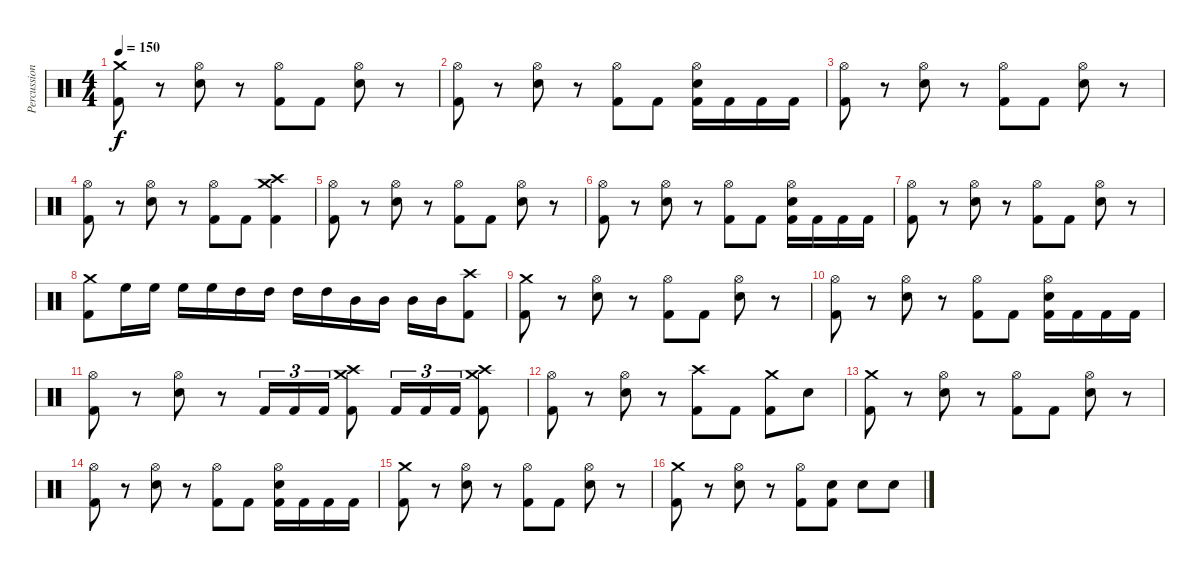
\track ("Percussion" "Percussion") {instrument percussion}
\staff {score}
\articulation defaults
\ts (4 4)
\tempo 150
\clef neutral
\ks c
("Kick (hit) 2" "Crash medium (hit)").8{dy f} r.8 ("Snare (hit) 2" "Hi-Hat (open)").8 r.8 ("Kick (hit) 2" "Hi-Hat (open)").8 "Kick (hit) 2".8 ("Snare (hit) 2" "Hi-Hat (open)").8 r.8 |
("Kick (hit) 2" "Hi-Hat (open)").8 r.8 ("Snare (hit) 2" "Hi-Hat (open)").8 r.8 ("Kick (hit) 2" "Hi-Hat (open)").8 "Kick (hit) 2".8 ("Kick (hit) 2" "Snare (hit) 2" "Hi-Hat (open)").16 "Kick (hit) 2".16 "Kick (hit) 2".16 "Kick (hit) 2".16 |
("Kick (hit) 2" "Hi-Hat (open)").8 r.8 ("Snare (hit) 2" "Hi-Hat (open)").8 r.8 ("Kick (hit) 2" "Hi-Hat (open)").8 "Kick (hit) 2".8 ("Snare (hit) 2" "Hi-Hat (open)").8 r.8 |
("Kick (hit) 2" "Hi-Hat (open)").8 r.8 ("Snare (hit) 2" "Hi-Hat (open)").8 r.8 ("Kick (hit) 2" "Hi-Hat (open)").8 "Kick (hit) 2".8 ("Kick (hit) 2" "Crash high (hit)" "Crash medium (hit)").4 |
("Kick (hit) 2" "Hi-Hat (open)").8 r.8 ("Snare (hit) 2" "Hi-Hat (open)").8 r.8 ("Kick (hit) 2" "Hi-Hat (open)").8 "Kick (hit) 2".8 ("Snare (hit) 2" "Hi-Hat (open)").8 r.8 |
("Kick (hit) 2" "Hi-Hat (open)").8 r.8 ("Snare (hit) 2" "Hi-Hat (open)").8 r.8 ("Kick (hit) 2" "Hi-Hat (open)").8 "Kick (hit) 2".8 ("Kick (hit) 2" "Snare (hit) 2" "Hi-Hat (open)").16 "Kick (hit) 2".16 "Kick (hit) 2".16 "Kick (hit) 2".16 |
("Kick (hit) 2" "Hi-Hat (open)").8 r.8 ("Snare (hit) 2" "Hi-Hat (open)").8 r.8 ("Kick (hit) 2" "Hi-Hat (open)").8 "Kick (hit) 2".8 ("Snare (hit) 2" "Hi-Hat (open)").8 r.8 |
("Kick (hit) 2" "Crash medium (hit)").8 "High Floor Tom (hit)".16 "High Floor Tom (hit)".16 "High Floor Tom (hit)".16 "High Floor Tom (hit)".16 "High Tom (hit)".16 "High Tom (hit)".16 "High Tom (hit)".16 "High Tom (hit)".16 "Mid Tom (hit)".16 "Mid Tom (hit)".16 "Mid Tom (hit)".16 "Mid Tom (hit)".16 ("Kick (hit) 2" "Crash high (hit)").8 |
("Kick (hit) 2" "Crash medium (hit)").8 r.8 ("Snare (hit) 2" "Hi-Hat (open)").8 r.8 ("Kick (hit) 2" "Hi-Hat (open)").8 "Kick (hit) 2".8 ("Snare (hit) 2" "Hi-Hat (open)").8 r.8 |
("Kick (hit) 2" "Hi-Hat (open)").8 r.8 ("Snare (hit) 2" "Hi-Hat (open)").8 r.8 ("Kick (hit) 2" "Hi-Hat (open)").8 "Kick (hit) 2".8 ("Kick (hit) 2" "Snare (hit) 2" "Hi-Hat (open)").16 "Kick (hit) 2".16 "Kick (hit) 2".16 "Kick (hit) 2".16 |
("Kick (hit) 2" "Hi-Hat (open)").8 r.8 ("Snare (hit) 2" "Hi-Hat (open)").8 r.8 "Kick (hit) 2".16{tu (3 2)} "Kick (hit) 2".16{tu (3 2)} "Kick (hit) 2".16{tu (3 2)} ("Kick (hit) 2" "Crash high (hit)" "Crash medium (hit)").8 "Kick (hit) 2".16{tu (3 2)} "Kick (hit) 2".16{tu (3 2)} "Kick (hit) 2".16{tu (3 2)} ("Kick (hit) 2" "Crash high (hit)" "Crash medium (hit)").8 |
("Kick (hit) 2" "Hi-Hat (open)").8 r.8 ("Snare (hit) 2" "Hi-Hat (open)").8 r.8 ("Kick (hit) 2" "Crash high (hit)").8 "Kick (hit) 2".8 ("Kick (hit) 2" "Crash medium (hit)").8 "Snare (hit) 2".8 |
("Kick (hit) 2" "Crash medium (hit)").8 r.8 ("Snare (hit) 2" "Hi-Hat (open)").8 r.8 ("Kick (hit) 2" "Hi-Hat (open)").8 "Kick (hit) 2".8 ("Snare (hit) 2" "Hi-Hat (open)").8 r.8 |
("Kick (hit) 2" "Hi-Hat (open)").8 r.8 ("Snare (hit) 2" "Hi-Hat (open)").8 r.8 ("Kick (hit) 2" "Hi-Hat (open)").8 "Kick (hit) 2".8 ("Kick (hit) 2" "Snare (hit) 2" "Hi-Hat (open)").16 "Kick (hit) 2".16 "Kick (hit) 2".16 "Kick (hit) 2".16 |
("Kick (hit) 2" "Crash medium (hit)").8 r.8 ("Snare (hit) 2" "Hi-Hat (open)").8 r.8 ("Kick (hit) 2" "Hi-Hat (open)").8 "Kick (hit) 2".8 ("Snare (hit) 2" "Hi-Hat (open)").8 r.8 |
("Kick (hit) 2" "Crash medium (hit)").8 r.8 ("Snare (hit) 2" "Hi-Hat (open)").8 r.8 ("Kick (hit) 2" "Hi-Hat (open)").8 ("Kick (hit) 2" "Snare (hit) 2").8 "Snare (hit) 2".8 "Snare (hit) 2".8
